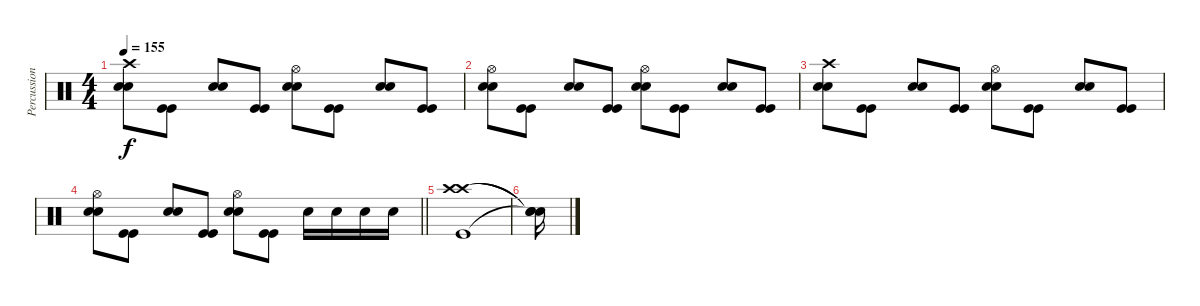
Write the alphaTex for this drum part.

\track ("Percussioni" "Percussion") {instrument percussion}
\staff {score}
\articulation defaults
\ts (4 4)
\tempo 155
\clef neutral
\ks c
("Snare (hit) 2" "Snare (hit) 2" "Crash high (hit)").8{dy f} ("Kick (hit)" "Kick (hit)").8 ("Snare (hit) 2" "Snare (hit) 2").8 ("Kick (hit)" "Kick (hit)").8 ("Snare (hit) 2" "Snare (hit) 2" "Hi-Hat (open)").8 ("Kick (hit)" "Kick (hit)").8 ("Snare (hit) 2" "Snare (hit) 2").8 ("Kick (hit)" "Kick (hit)").8 |
("Snare (hit) 2" "Snare (hit) 2" "Hi-Hat (open)").8 ("Kick (hit)" "Kick (hit)").8 ("Snare (hit) 2" "Snare (hit) 2").8 ("Kick (hit)" "Kick (hit)").8 ("Snare (hit) 2" "Snare (hit) 2" "Hi-Hat (open)").8 ("Kick (hit)" "Kick (hit)").8 ("Snare (hit) 2" "Snare (hit) 2").8 ("Kick (hit)" "Kick (hit)").8 |
("Snare (hit) 2" "Snare (hit) 2" "Crash high (hit)").8 ("Kick (hit)" "Kick (hit)").8 ("Snare (hit) 2" "Snare (hit) 2").8 ("Kick (hit)" "Kick (hit)").8 ("Snare (hit) 2" "Snare (hit) 2" "Hi-Hat (open)").8 ("Kick (hit)" "Kick (hit)").8 ("Snare (hit) 2" "Snare (hit) 2").8 ("Kick (hit)" "Kick (hit)").8 |
\barLineRight lightlight
("Snare (hit) 2" "Snare (hit) 2" "Hi-Hat (open)").8 ("Kick (hit)" "Kick (hit)").8 ("Snare (hit) 2" "Snare (hit) 2").8 ("Kick (hit)" "Kick (hit)").8 ("Snare (hit) 2" "Snare (hit) 2" "Hi-Hat (open)").8 ("Kick (hit)" "Kick (hit)").8 "Snare (hit) 2".16 "Snare (hit) 2".16 "Snare (hit) 2".16 "Snare (hit) 2".16 |
("Crash high (hit)" "Crash high (hit)" "Kick (hit)").1 |
("Snare (hit)"{t} "Snare (hit)"{t} "Snare (hit)"{t}).16
